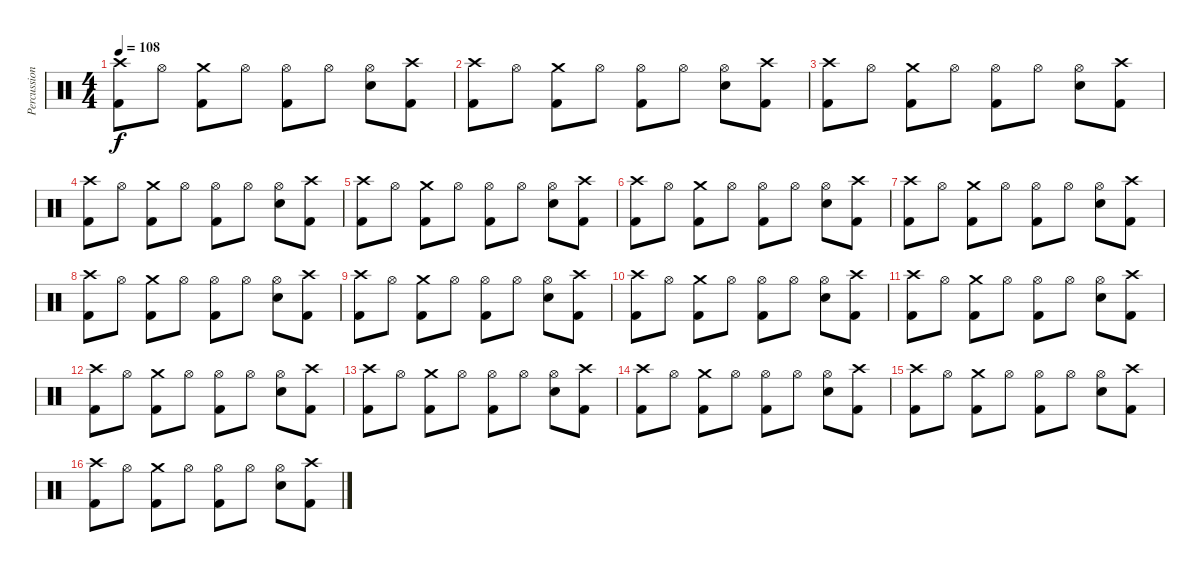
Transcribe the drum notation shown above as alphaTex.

\track ("Percussion" "Percussion") {instrument percussion}
\staff {score}
\articulation defaults
\ts (4 4)
\tempo 108
\clef neutral
\ks c
("Crash high (hit)" "Kick (hit) 2").8{dy f} "Hi-Hat (open)".8 ("Crash medium (hit)" "Kick (hit) 2").8 "Hi-Hat (open)".8 ("Hi-Hat (open)" "Kick (hit) 2").8 "Hi-Hat (open)".8 ("Hi-Hat (open)" "Snare (hit) 2").8 ("Crash high (hit)" "Kick (hit) 2").8 |
("Crash high (hit)" "Kick (hit) 2").8 "Hi-Hat (open)".8 ("Crash medium (hit)" "Kick (hit) 2").8 "Hi-Hat (open)".8 ("Hi-Hat (open)" "Kick (hit) 2").8 "Hi-Hat (open)".8 ("Hi-Hat (open)" "Snare (hit) 2").8 ("Crash high (hit)" "Kick (hit) 2").8 |
("Crash high (hit)" "Kick (hit) 2").8 "Hi-Hat (open)".8 ("Crash medium (hit)" "Kick (hit) 2").8 "Hi-Hat (open)".8 ("Hi-Hat (open)" "Kick (hit) 2").8 "Hi-Hat (open)".8 ("Hi-Hat (open)" "Snare (hit) 2").8 ("Crash high (hit)" "Kick (hit) 2").8 |
("Crash high (hit)" "Kick (hit) 2").8 "Hi-Hat (open)".8 ("Crash medium (hit)" "Kick (hit) 2").8 "Hi-Hat (open)".8 ("Hi-Hat (open)" "Kick (hit) 2").8 "Hi-Hat (open)".8 ("Hi-Hat (open)" "Snare (hit) 2").8 ("Crash high (hit)" "Kick (hit) 2").8 |
("Crash high (hit)" "Kick (hit) 2").8 "Hi-Hat (open)".8 ("Crash medium (hit)" "Kick (hit) 2").8 "Hi-Hat (open)".8 ("Hi-Hat (open)" "Kick (hit) 2").8 "Hi-Hat (open)".8 ("Hi-Hat (open)" "Snare (hit) 2").8 ("Crash high (hit)" "Kick (hit) 2").8 |
("Crash high (hit)" "Kick (hit) 2").8 "Hi-Hat (open)".8 ("Crash medium (hit)" "Kick (hit) 2").8 "Hi-Hat (open)".8 ("Hi-Hat (open)" "Kick (hit) 2").8 "Hi-Hat (open)".8 ("Hi-Hat (open)" "Snare (hit) 2").8 ("Crash high (hit)" "Kick (hit) 2").8 |
("Crash high (hit)" "Kick (hit) 2").8 "Hi-Hat (open)".8 ("Crash medium (hit)" "Kick (hit) 2").8 "Hi-Hat (open)".8 ("Hi-Hat (open)" "Kick (hit) 2").8 "Hi-Hat (open)".8 ("Hi-Hat (open)" "Snare (hit) 2").8 ("Crash high (hit)" "Kick (hit) 2").8 |
("Crash high (hit)" "Kick (hit) 2").8 "Hi-Hat (open)".8 ("Crash medium (hit)" "Kick (hit) 2").8 "Hi-Hat (open)".8 ("Hi-Hat (open)" "Kick (hit) 2").8 "Hi-Hat (open)".8 ("Hi-Hat (open)" "Snare (hit) 2").8 ("Crash high (hit)" "Kick (hit) 2").8 |
("Crash high (hit)" "Kick (hit) 2").8 "Hi-Hat (open)".8 ("Crash medium (hit)" "Kick (hit) 2").8 "Hi-Hat (open)".8 ("Hi-Hat (open)" "Kick (hit) 2").8 "Hi-Hat (open)".8 ("Hi-Hat (open)" "Snare (hit) 2").8 ("Crash high (hit)" "Kick (hit) 2").8 |
("Crash high (hit)" "Kick (hit) 2").8 "Hi-Hat (open)".8 ("Crash medium (hit)" "Kick (hit) 2").8 "Hi-Hat (open)".8 ("Hi-Hat (open)" "Kick (hit) 2").8 "Hi-Hat (open)".8 ("Hi-Hat (open)" "Snare (hit) 2").8 ("Crash high (hit)" "Kick (hit) 2").8 |
("Crash high (hit)" "Kick (hit) 2").8 "Hi-Hat (open)".8 ("Crash medium (hit)" "Kick (hit) 2").8 "Hi-Hat (open)".8 ("Hi-Hat (open)" "Kick (hit) 2").8 "Hi-Hat (open)".8 ("Hi-Hat (open)" "Snare (hit) 2").8 ("Crash high (hit)" "Kick (hit) 2").8 |
("Crash high (hit)" "Kick (hit) 2").8 "Hi-Hat (open)".8 ("Crash medium (hit)" "Kick (hit) 2").8 "Hi-Hat (open)".8 ("Hi-Hat (open)" "Kick (hit) 2").8 "Hi-Hat (open)".8 ("Hi-Hat (open)" "Snare (hit) 2").8 ("Crash high (hit)" "Kick (hit) 2").8 |
("Crash high (hit)" "Kick (hit) 2").8 "Hi-Hat (open)".8 ("Crash medium (hit)" "Kick (hit) 2").8 "Hi-Hat (open)".8 ("Hi-Hat (open)" "Kick (hit) 2").8 "Hi-Hat (open)".8 ("Hi-Hat (open)" "Snare (hit) 2").8 ("Crash high (hit)" "Kick (hit) 2").8 |
("Crash high (hit)" "Kick (hit) 2").8 "Hi-Hat (open)".8 ("Crash medium (hit)" "Kick (hit) 2").8 "Hi-Hat (open)".8 ("Hi-Hat (open)" "Kick (hit) 2").8 "Hi-Hat (open)".8 ("Hi-Hat (open)" "Snare (hit) 2").8 ("Crash high (hit)" "Kick (hit) 2").8 |
("Crash high (hit)" "Kick (hit) 2").8 "Hi-Hat (open)".8 ("Crash medium (hit)" "Kick (hit) 2").8 "Hi-Hat (open)".8 ("Hi-Hat (open)" "Kick (hit) 2").8 "Hi-Hat (open)".8 ("Hi-Hat (open)" "Snare (hit) 2").8 ("Crash high (hit)" "Kick (hit) 2").8 |
("Crash high (hit)" "Kick (hit) 2").8 "Hi-Hat (open)".8 ("Crash medium (hit)" "Kick (hit) 2").8 "Hi-Hat (open)".8 ("Hi-Hat (open)" "Kick (hit) 2").8 "Hi-Hat (open)".8 ("Hi-Hat (open)" "Snare (hit) 2").8 ("Crash high (hit)" "Kick (hit) 2").8
